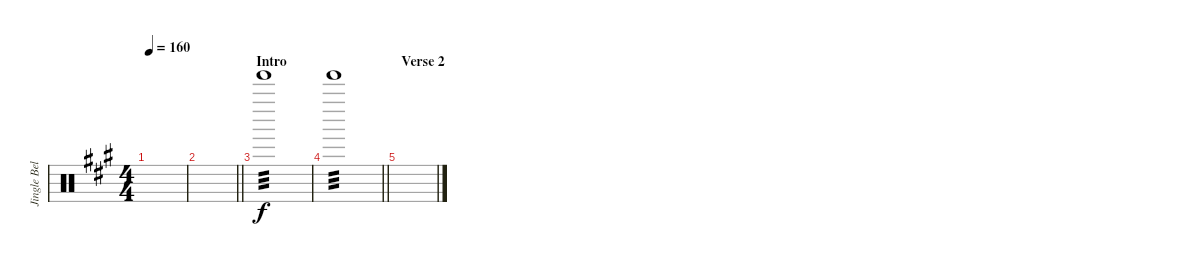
\track ("Jingle Bells" "Jingle Bel") {instrument percussion}
\staff {score}
\articulation defaults
\ts (4 4)
\tempo 160
\clef neutral
\ks a
|
\barLineRight lightlight
|
\section ("" "Intro")
"Tinkle Bell (hit)".1{tp 3} |
\barLineRight lightlight "Tinkle Bell (hit)".1{tp 3}
|
\section ("" "Verse 2")
